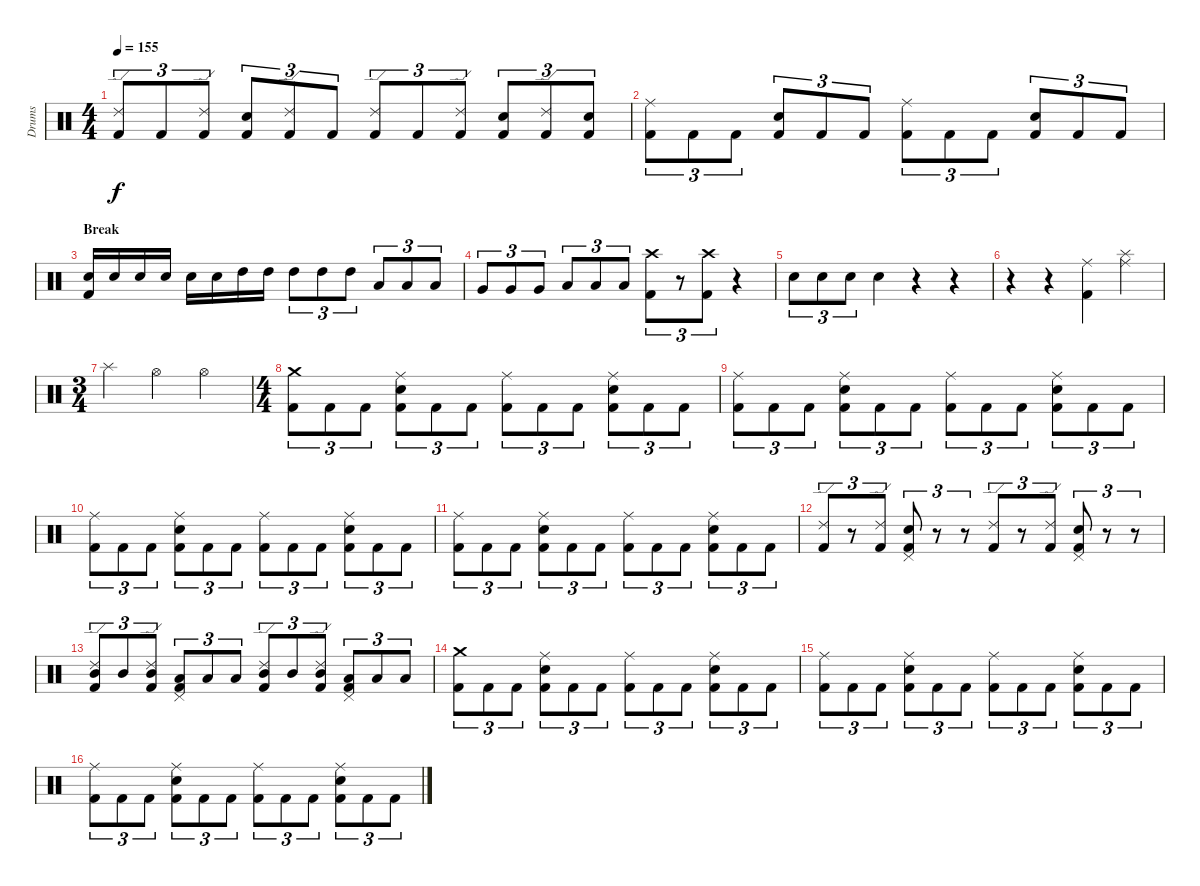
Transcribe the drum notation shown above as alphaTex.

\track ("Drums" "Drums") {instrument percussion}
\staff {score}
\articulation defaults
\ts (4 4)
\tempo 155
\clef neutral
\ks c
("Kick (hit) 2" "Ride (edge) 2").8{tu (3 2) dy f} "Kick (hit) 2".8{tu (3 2)} ("Kick (hit) 2" "Ride (edge) 2").8{tu (3 2)} ("Kick (hit) 2" "Electric Snare (hit)").8{tu (3 2)} ("Kick (hit) 2" "Ride (edge) 2").8{tu (3 2)} "Kick (hit) 2".8{tu (3 2)} ("Kick (hit) 2" "Ride (edge) 2").8{tu (3 2)} "Kick (hit) 2".8{tu (3 2)} ("Kick (hit) 2" "Ride (edge) 2").8{tu (3 2)} ("Kick (hit) 2" "Electric Snare (hit)").8{tu (3 2)} ("Kick (hit) 2" "Ride (edge) 2").8{tu (3 2)} ("Kick (hit) 2" "Electric Snare (hit)").8{tu (3 2)} |
("Kick (hit) 2" "Ride (middle)").8{tu (3 2)} "Kick (hit) 2".8{tu (3 2)} "Kick (hit) 2".8{tu (3 2)} ("Kick (hit) 2" "Electric Snare (hit)").8{tu (3 2)} "Kick (hit) 2".8{tu (3 2)} "Kick (hit) 2".8{tu (3 2)} ("Kick (hit) 2" "Ride (middle)").8{tu (3 2)} "Kick (hit) 2".8{tu (3 2)} "Kick (hit) 2".8{tu (3 2)} ("Kick (hit) 2" "Electric Snare (hit)").8{tu (3 2)} "Kick (hit) 2".8{tu (3 2)} "Kick (hit) 2".8{tu (3 2)} |
\section ("" "Break")
("Kick (hit) 2" "Electric Snare (hit)").16 "Electric Snare (hit)".16 "Electric Snare (hit)".16 "Electric Snare (hit)".16 "Electric Snare (hit)".16 "Electric Snare (hit)".16 "High Tom (hit)".16 "High Tom (hit)".16 "High Tom (hit)".8{tu (3 2)} "High Tom (hit)".8{tu (3 2)} "High Tom (hit)".8{tu (3 2)} "Low Tom (hit)".8{tu (3 2)} "Low Tom (hit)".8{tu (3 2)} "Low Tom (hit)".8{tu (3 2)} |
"Very Low Tom (hit)".8{tu (3 2)} "Very Low Tom (hit)".8{tu (3 2)} "Very Low Tom (hit)".8{tu (3 2)} "Low Floor Tom (hit)".8{tu (3 2)} "Low Floor Tom (hit)".8{tu (3 2)} "Low Floor Tom (hit)".8{tu (3 2)} ("Kick (hit) 2" "Crash high (hit)").8{tu (3 2)} r.8{tu (3 2)} ("Kick (hit) 2" "Crash high (hit)").8{tu (3 2)} r.4 |
"Electric Snare (hit)".8{tu (3 2)} "Electric Snare (hit)".8{tu (3 2)} "Electric Snare (hit)".8{tu (3 2)} "Electric Snare (hit)".4 r.4 r.4 |
r.4 r.4 ("Kick (hit) 2" "Ride (middle)").4 ("Splash (hit)" "Ride (middle)").4 |
\ts (3 4)
"Splash (hit)".4 "Hi-Hat (open)".4 "Hi-Hat (open)".4 |
\ts (4 4)
("Kick (hit) 2" "Crash medium (hit)").8{tu (3 2)} "Kick (hit) 2".8{tu (3 2)} "Kick (hit) 2".8{tu (3 2)} ("Kick (hit) 2" "Electric Snare (hit)" "Ride (middle)").8{tu (3 2)} "Kick (hit) 2".8{tu (3 2)} "Kick (hit) 2".8{tu (3 2)} ("Kick (hit) 2" "Ride (middle)").8{tu (3 2)} "Kick (hit) 2".8{tu (3 2)} "Kick (hit) 2".8{tu (3 2)} ("Kick (hit) 2" "Electric Snare (hit)" "Ride (middle)").8{tu (3 2)} "Kick (hit) 2".8{tu (3 2)} "Kick (hit) 2".8{tu (3 2)} |
("Kick (hit) 2" "Ride (middle)").8{tu (3 2)} "Kick (hit) 2".8{tu (3 2)} "Kick (hit) 2".8{tu (3 2)} ("Kick (hit) 2" "Electric Snare (hit)" "Ride (middle)").8{tu (3 2)} "Kick (hit) 2".8{tu (3 2)} "Kick (hit) 2".8{tu (3 2)} ("Kick (hit) 2" "Ride (middle)").8{tu (3 2)} "Kick (hit) 2".8{tu (3 2)} "Kick (hit) 2".8{tu (3 2)} ("Kick (hit) 2" "Electric Snare (hit)" "Ride (middle)").8{tu (3 2)} "Kick (hit) 2".8{tu (3 2)} "Kick (hit) 2".8{tu (3 2)} |
("Kick (hit) 2" "Ride (middle)").8{tu (3 2)} "Kick (hit) 2".8{tu (3 2)} "Kick (hit) 2".8{tu (3 2)} ("Kick (hit) 2" "Electric Snare (hit)" "Ride (middle)").8{tu (3 2)} "Kick (hit) 2".8{tu (3 2)} "Kick (hit) 2".8{tu (3 2)} ("Kick (hit) 2" "Ride (middle)").8{tu (3 2)} "Kick (hit) 2".8{tu (3 2)} "Kick (hit) 2".8{tu (3 2)} ("Kick (hit) 2" "Electric Snare (hit)" "Ride (middle)").8{tu (3 2)} "Kick (hit) 2".8{tu (3 2)} "Kick (hit) 2".8{tu (3 2)} |
("Kick (hit) 2" "Ride (middle)").8{tu (3 2)} "Kick (hit) 2".8{tu (3 2)} "Kick (hit) 2".8{tu (3 2)} ("Kick (hit) 2" "Electric Snare (hit)" "Ride (middle)").8{tu (3 2)} "Kick (hit) 2".8{tu (3 2)} "Kick (hit) 2".8{tu (3 2)} ("Kick (hit) 2" "Ride (middle)").8{tu (3 2)} "Kick (hit) 2".8{tu (3 2)} "Kick (hit) 2".8{tu (3 2)} ("Kick (hit) 2" "Electric Snare (hit)" "Ride (middle)").8{tu (3 2)} "Kick (hit) 2".8{tu (3 2)} "Kick (hit) 2".8{tu (3 2)} |
("Kick (hit) 2" "Ride (edge) 2").8{tu (3 2)} r.8{tu (3 2)} ("Kick (hit) 2" "Ride (edge) 2").8{tu (3 2)} ("Kick (hit) 2" "Electric Snare (hit)" "Pedal Hi-Hat (hit)").8{tu (3 2)} r.8{tu (3 2)} r.8{tu (3 2)} ("Kick (hit) 2" "Ride (edge) 2").8{tu (3 2)} r.8{tu (3 2)} ("Kick (hit) 2" "Ride (edge) 2").8{tu (3 2)} ("Kick (hit) 2" "Electric Snare (hit)" "Pedal Hi-Hat (hit)").8{tu (3 2)} r.8{tu (3 2)} r.8{tu (3 2)} |
("Kick (hit) 2" "Mid Tom (hit)" "Ride (edge) 2").8{tu (3 2)} "Mid Tom (hit)".8{tu (3 2)} ("Kick (hit) 2" "Mid Tom (hit)" "Ride (edge) 2").8{tu (3 2)} ("Kick (hit) 2" "Low Tom (hit)" "Pedal Hi-Hat (hit)").8{tu (3 2)} "Low Tom (hit)".8{tu (3 2)} "Low Tom (hit)".8{tu (3 2)} ("Kick (hit) 2" "Mid Tom (hit)" "Ride (edge) 2").8{tu (3 2)} "Mid Tom (hit)".8{tu (3 2)} ("Kick (hit) 2" "Mid Tom (hit)" "Ride (edge) 2").8{tu (3 2)} ("Kick (hit) 2" "Low Tom (hit)" "Pedal Hi-Hat (hit)").8{tu (3 2)} "Low Tom (hit)".8{tu (3 2)} "Low Tom (hit)".8{tu (3 2)} |
("Kick (hit) 2" "Crash medium (hit)").8{tu (3 2)} "Kick (hit) 2".8{tu (3 2)} "Kick (hit) 2".8{tu (3 2)} ("Kick (hit) 2" "Electric Snare (hit)" "Ride (middle)").8{tu (3 2)} "Kick (hit) 2".8{tu (3 2)} "Kick (hit) 2".8{tu (3 2)} ("Kick (hit) 2" "Ride (middle)").8{tu (3 2)} "Kick (hit) 2".8{tu (3 2)} "Kick (hit) 2".8{tu (3 2)} ("Kick (hit) 2" "Electric Snare (hit)" "Ride (middle)").8{tu (3 2)} "Kick (hit) 2".8{tu (3 2)} "Kick (hit) 2".8{tu (3 2)} |
("Kick (hit) 2" "Ride (middle)").8{tu (3 2)} "Kick (hit) 2".8{tu (3 2)} "Kick (hit) 2".8{tu (3 2)} ("Kick (hit) 2" "Electric Snare (hit)" "Ride (middle)").8{tu (3 2)} "Kick (hit) 2".8{tu (3 2)} "Kick (hit) 2".8{tu (3 2)} ("Kick (hit) 2" "Ride (middle)").8{tu (3 2)} "Kick (hit) 2".8{tu (3 2)} "Kick (hit) 2".8{tu (3 2)} ("Kick (hit) 2" "Electric Snare (hit)" "Ride (middle)").8{tu (3 2)} "Kick (hit) 2".8{tu (3 2)} "Kick (hit) 2".8{tu (3 2)} |
("Kick (hit) 2" "Ride (middle)").8{tu (3 2)} "Kick (hit) 2".8{tu (3 2)} "Kick (hit) 2".8{tu (3 2)} ("Kick (hit) 2" "Electric Snare (hit)" "Ride (middle)").8{tu (3 2)} "Kick (hit) 2".8{tu (3 2)} "Kick (hit) 2".8{tu (3 2)} ("Kick (hit) 2" "Ride (middle)").8{tu (3 2)} "Kick (hit) 2".8{tu (3 2)} "Kick (hit) 2".8{tu (3 2)} ("Kick (hit) 2" "Electric Snare (hit)" "Ride (middle)").8{tu (3 2)} "Kick (hit) 2".8{tu (3 2)} "Kick (hit) 2".8{tu (3 2)}
